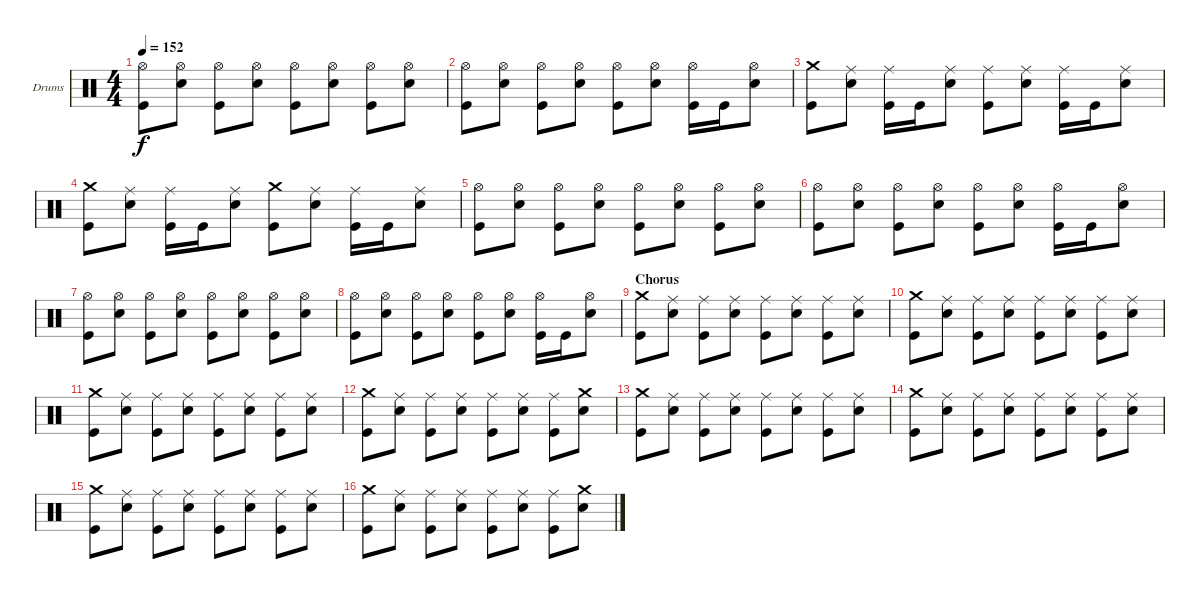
\bracketExtendMode groupsimilarinstruments
\firstSystemTrackNameOrientation horizontal
\otherSystemsTrackNameOrientation horizontal
\track ("Drumkit" "Drums") {instrument percussion}
\staff {score}
\articulation defaults
\ts (4 4)
\tempo 152
\clef neutral
\ks c
("Hi-Hat (open)" "Kick (hit)").8{dy f} ("Hi-Hat (open)" "Snare (hit) 2").8 ("Hi-Hat (open)" "Kick (hit)").8 ("Hi-Hat (open)" "Snare (hit) 2").8 ("Hi-Hat (open)" "Kick (hit)").8 ("Hi-Hat (open)" "Snare (hit) 2").8 ("Hi-Hat (open)" "Kick (hit)").8 ("Hi-Hat (open)" "Snare (hit) 2").8 |
("Hi-Hat (open)" "Kick (hit)").8 ("Hi-Hat (open)" "Snare (hit) 2").8 ("Hi-Hat (open)" "Kick (hit)").8 ("Hi-Hat (open)" "Snare (hit) 2").8 ("Hi-Hat (open)" "Kick (hit)").8 ("Hi-Hat (open)" "Snare (hit) 2").8 ("Hi-Hat (open)" "Kick (hit)").16 "Kick (hit)".16 ("Hi-Hat (open)" "Snare (hit) 2").8 |
("Crash medium (hit)" "Kick (hit)").8 ("Ride (middle)" "Snare (hit) 2").8 ("Ride (middle)" "Kick (hit)").16 "Kick (hit)".16 ("Ride (middle)" "Snare (hit) 2").8 ("Ride (middle)" "Kick (hit)").8 ("Ride (middle)" "Snare (hit) 2").8 ("Ride (middle)" "Kick (hit)").16 "Kick (hit)".16 ("Ride (middle)" "Snare (hit) 2").8 |
("Crash medium (hit)" "Kick (hit)").8 ("Ride (middle)" "Snare (hit) 2").8 ("Ride (middle)" "Kick (hit)").16 "Kick (hit)".16 ("Ride (middle)" "Snare (hit) 2").8 ("Crash medium (hit)" "Kick (hit)").8 ("Ride (middle)" "Snare (hit) 2").8 ("Ride (middle)" "Kick (hit)").16 "Kick (hit)".16 ("Ride (middle)" "Snare (hit) 2").8 |
("Hi-Hat (open)" "Kick (hit)").8 ("Hi-Hat (open)" "Snare (hit) 2").8 ("Hi-Hat (open)" "Kick (hit)").8 ("Hi-Hat (open)" "Snare (hit) 2").8 ("Hi-Hat (open)" "Kick (hit)").8 ("Hi-Hat (open)" "Snare (hit) 2").8 ("Hi-Hat (open)" "Kick (hit)").8 ("Hi-Hat (open)" "Snare (hit) 2").8 |
("Hi-Hat (open)" "Kick (hit)").8 ("Hi-Hat (open)" "Snare (hit) 2").8 ("Hi-Hat (open)" "Kick (hit)").8 ("Hi-Hat (open)" "Snare (hit) 2").8 ("Hi-Hat (open)" "Kick (hit)").8 ("Hi-Hat (open)" "Snare (hit) 2").8 ("Hi-Hat (open)" "Kick (hit)").16 "Kick (hit)".16 ("Hi-Hat (open)" "Snare (hit) 2").8 |
("Hi-Hat (open)" "Kick (hit)").8 ("Hi-Hat (open)" "Snare (hit) 2").8 ("Hi-Hat (open)" "Kick (hit)").8 ("Hi-Hat (open)" "Snare (hit) 2").8 ("Hi-Hat (open)" "Kick (hit)").8 ("Hi-Hat (open)" "Snare (hit) 2").8 ("Hi-Hat (open)" "Kick (hit)").8 ("Hi-Hat (open)" "Snare (hit) 2").8 |
("Hi-Hat (open)" "Kick (hit)").8 ("Hi-Hat (open)" "Snare (hit) 2").8 ("Hi-Hat (open)" "Kick (hit)").8 ("Hi-Hat (open)" "Snare (hit) 2").8 ("Hi-Hat (open)" "Kick (hit)").8 ("Hi-Hat (open)" "Snare (hit) 2").8 ("Hi-Hat (open)" "Kick (hit)").16 "Kick (hit)".16 ("Hi-Hat (open)" "Snare (hit) 2").8 |
\section ("" "Chorus")
("Crash medium (hit)" "Kick (hit)").8 ("Ride (middle)" "Snare (hit) 2").8 ("Ride (middle)" "Kick (hit)").8 ("Ride (middle)" "Snare (hit) 2").8 ("Ride (middle)" "Kick (hit)").8 ("Ride (middle)" "Snare (hit) 2").8 ("Ride (middle)" "Kick (hit)").8 ("Ride (middle)" "Snare (hit) 2").8 |
("Crash medium (hit)" "Kick (hit)").8 ("Ride (middle)" "Snare (hit) 2").8 ("Ride (middle)" "Kick (hit)").8 ("Ride (middle)" "Snare (hit) 2").8 ("Ride (middle)" "Kick (hit)").8 ("Ride (middle)" "Snare (hit) 2").8 ("Ride (middle)" "Kick (hit)").8 ("Ride (middle)" "Snare (hit) 2").8 |
("Crash medium (hit)" "Kick (hit)").8 ("Ride (middle)" "Snare (hit) 2").8 ("Ride (middle)" "Kick (hit)").8 ("Ride (middle)" "Snare (hit) 2").8 ("Ride (middle)" "Kick (hit)").8 ("Ride (middle)" "Snare (hit) 2").8 ("Ride (middle)" "Kick (hit)").8 ("Ride (middle)" "Snare (hit) 2").8 |
("Crash medium (hit)" "Kick (hit)").8 ("Ride (middle)" "Snare (hit) 2").8 ("Ride (middle)" "Kick (hit)").8 ("Ride (middle)" "Snare (hit) 2").8 ("Ride (middle)" "Kick (hit)").8 ("Ride (middle)" "Snare (hit) 2").8 ("Ride (middle)" "Kick (hit)").8 ("Crash medium (hit)" "Snare (hit) 2").8 |
("Crash medium (hit)" "Kick (hit)").8 ("Ride (middle)" "Snare (hit) 2").8 ("Ride (middle)" "Kick (hit)").8 ("Ride (middle)" "Snare (hit) 2").8 ("Ride (middle)" "Kick (hit)").8 ("Ride (middle)" "Snare (hit) 2").8 ("Ride (middle)" "Kick (hit)").8 ("Ride (middle)" "Snare (hit) 2").8 |
("Crash medium (hit)" "Kick (hit)").8 ("Ride (middle)" "Snare (hit) 2").8 ("Ride (middle)" "Kick (hit)").8 ("Ride (middle)" "Snare (hit) 2").8 ("Ride (middle)" "Kick (hit)").8 ("Ride (middle)" "Snare (hit) 2").8 ("Ride (middle)" "Kick (hit)").8 ("Ride (middle)" "Snare (hit) 2").8 |
("Crash medium (hit)" "Kick (hit)").8 ("Ride (middle)" "Snare (hit) 2").8 ("Ride (middle)" "Kick (hit)").8 ("Ride (middle)" "Snare (hit) 2").8 ("Ride (middle)" "Kick (hit)").8 ("Ride (middle)" "Snare (hit) 2").8 ("Ride (middle)" "Kick (hit)").8 ("Ride (middle)" "Snare (hit) 2").8 |
("Crash medium (hit)" "Kick (hit)").8 ("Ride (middle)" "Snare (hit) 2").8 ("Ride (middle)" "Kick (hit)").8 ("Ride (middle)" "Snare (hit) 2").8 ("Ride (middle)" "Kick (hit)").8 ("Ride (middle)" "Snare (hit) 2").8 ("Ride (middle)" "Kick (hit)").8 ("Crash medium (hit)" "Snare (hit) 2").8
